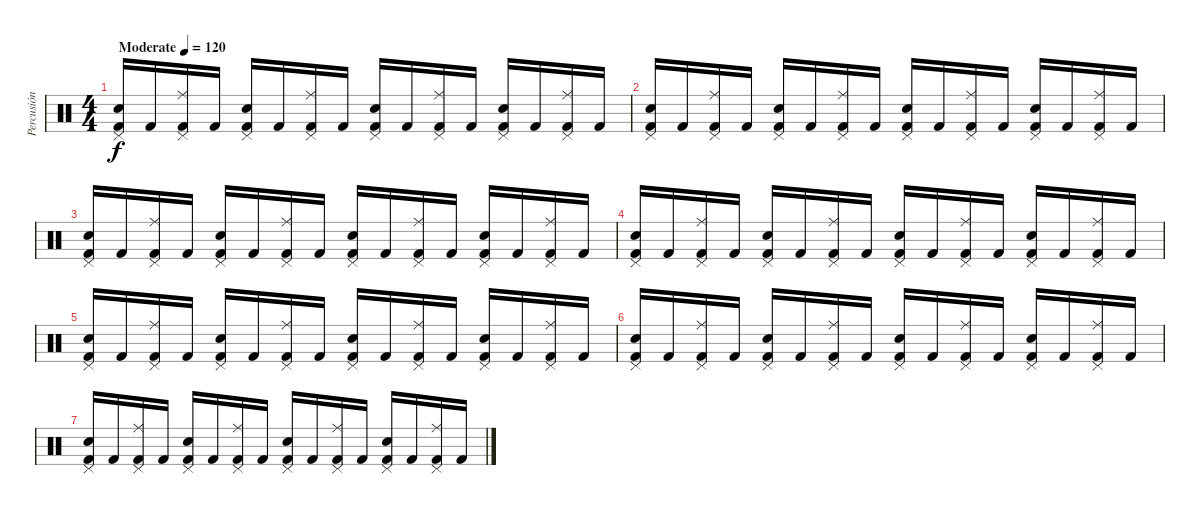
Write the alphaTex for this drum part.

\track ("Percusión" "Percusión") {instrument percussion}
\staff {score}
\articulation defaults
\ts (4 4)
\tempo (120 "Moderate")
\clef neutral
\ks c
("Snare (hit) 2" "Pedal Hi-Hat (hit)" "Kick (hit) 2").16{dy f} "Kick (hit) 2".16 ("Ride (middle)" "Pedal Hi-Hat (hit)" "Kick (hit) 2").16 "Kick (hit) 2".16 ("Snare (hit) 2" "Pedal Hi-Hat (hit)" "Kick (hit) 2").16 "Kick (hit) 2".16 ("Ride (middle)" "Pedal Hi-Hat (hit)" "Kick (hit) 2").16 "Kick (hit) 2".16 ("Snare (hit) 2" "Pedal Hi-Hat (hit)" "Kick (hit) 2").16 "Kick (hit) 2".16 ("Ride (middle)" "Pedal Hi-Hat (hit)" "Kick (hit) 2").16 "Kick (hit) 2".16 ("Snare (hit) 2" "Pedal Hi-Hat (hit)" "Kick (hit) 2").16 "Kick (hit) 2".16 ("Ride (middle)" "Pedal Hi-Hat (hit)" "Kick (hit) 2").16 "Kick (hit) 2".16 |
("Snare (hit) 2" "Pedal Hi-Hat (hit)" "Kick (hit) 2").16 "Kick (hit) 2".16 ("Ride (middle)" "Pedal Hi-Hat (hit)" "Kick (hit) 2").16 "Kick (hit) 2".16 ("Snare (hit) 2" "Pedal Hi-Hat (hit)" "Kick (hit) 2").16 "Kick (hit) 2".16 ("Ride (middle)" "Pedal Hi-Hat (hit)" "Kick (hit) 2").16 "Kick (hit) 2".16 ("Snare (hit) 2" "Pedal Hi-Hat (hit)" "Kick (hit) 2").16 "Kick (hit) 2".16 ("Ride (middle)" "Pedal Hi-Hat (hit)" "Kick (hit) 2").16 "Kick (hit) 2".16 ("Snare (hit) 2" "Pedal Hi-Hat (hit)" "Kick (hit) 2").16 "Kick (hit) 2".16 ("Ride (middle)" "Pedal Hi-Hat (hit)" "Kick (hit) 2").16 "Kick (hit) 2".16 |
("Snare (hit) 2" "Pedal Hi-Hat (hit)" "Kick (hit) 2").16 "Kick (hit) 2".16 ("Ride (middle)" "Pedal Hi-Hat (hit)" "Kick (hit) 2").16 "Kick (hit) 2".16 ("Snare (hit) 2" "Pedal Hi-Hat (hit)" "Kick (hit) 2").16 "Kick (hit) 2".16 ("Ride (middle)" "Pedal Hi-Hat (hit)" "Kick (hit) 2").16 "Kick (hit) 2".16 ("Snare (hit) 2" "Pedal Hi-Hat (hit)" "Kick (hit) 2").16 "Kick (hit) 2".16 ("Ride (middle)" "Pedal Hi-Hat (hit)" "Kick (hit) 2").16 "Kick (hit) 2".16 ("Snare (hit) 2" "Pedal Hi-Hat (hit)" "Kick (hit) 2").16 "Kick (hit) 2".16 ("Ride (middle)" "Pedal Hi-Hat (hit)" "Kick (hit) 2").16 "Kick (hit) 2".16 |
("Snare (hit) 2" "Pedal Hi-Hat (hit)" "Kick (hit) 2").16 "Kick (hit) 2".16 ("Ride (middle)" "Pedal Hi-Hat (hit)" "Kick (hit) 2").16 "Kick (hit) 2".16 ("Snare (hit) 2" "Pedal Hi-Hat (hit)" "Kick (hit) 2").16 "Kick (hit) 2".16 ("Ride (middle)" "Pedal Hi-Hat (hit)" "Kick (hit) 2").16 "Kick (hit) 2".16 ("Snare (hit) 2" "Pedal Hi-Hat (hit)" "Kick (hit) 2").16 "Kick (hit) 2".16 ("Ride (middle)" "Pedal Hi-Hat (hit)" "Kick (hit) 2").16 "Kick (hit) 2".16 ("Snare (hit) 2" "Pedal Hi-Hat (hit)" "Kick (hit) 2").16 "Kick (hit) 2".16 ("Ride (middle)" "Pedal Hi-Hat (hit)" "Kick (hit) 2").16 "Kick (hit) 2".16 |
("Snare (hit) 2" "Pedal Hi-Hat (hit)" "Kick (hit) 2").16 "Kick (hit) 2".16 ("Ride (middle)" "Pedal Hi-Hat (hit)" "Kick (hit) 2").16 "Kick (hit) 2".16 ("Snare (hit) 2" "Pedal Hi-Hat (hit)" "Kick (hit) 2").16 "Kick (hit) 2".16 ("Ride (middle)" "Pedal Hi-Hat (hit)" "Kick (hit) 2").16 "Kick (hit) 2".16 ("Snare (hit) 2" "Pedal Hi-Hat (hit)" "Kick (hit) 2").16 "Kick (hit) 2".16 ("Ride (middle)" "Pedal Hi-Hat (hit)" "Kick (hit) 2").16 "Kick (hit) 2".16 ("Snare (hit) 2" "Pedal Hi-Hat (hit)" "Kick (hit) 2").16 "Kick (hit) 2".16 ("Ride (middle)" "Pedal Hi-Hat (hit)" "Kick (hit) 2").16 "Kick (hit) 2".16 |
("Snare (hit) 2" "Pedal Hi-Hat (hit)" "Kick (hit) 2").16 "Kick (hit) 2".16 ("Ride (middle)" "Pedal Hi-Hat (hit)" "Kick (hit) 2").16 "Kick (hit) 2".16 ("Snare (hit) 2" "Pedal Hi-Hat (hit)" "Kick (hit) 2").16 "Kick (hit) 2".16 ("Ride (middle)" "Pedal Hi-Hat (hit)" "Kick (hit) 2").16 "Kick (hit) 2".16 ("Snare (hit) 2" "Pedal Hi-Hat (hit)" "Kick (hit) 2").16 "Kick (hit) 2".16 ("Ride (middle)" "Pedal Hi-Hat (hit)" "Kick (hit) 2").16 "Kick (hit) 2".16 ("Snare (hit) 2" "Pedal Hi-Hat (hit)" "Kick (hit) 2").16 "Kick (hit) 2".16 ("Ride (middle)" "Pedal Hi-Hat (hit)" "Kick (hit) 2").16 "Kick (hit) 2".16 |
("Snare (hit) 2" "Pedal Hi-Hat (hit)" "Kick (hit) 2").16 "Kick (hit) 2".16 ("Ride (middle)" "Pedal Hi-Hat (hit)" "Kick (hit) 2").16 "Kick (hit) 2".16 ("Snare (hit) 2" "Pedal Hi-Hat (hit)" "Kick (hit) 2").16 "Kick (hit) 2".16 ("Ride (middle)" "Pedal Hi-Hat (hit)" "Kick (hit) 2").16 "Kick (hit) 2".16 ("Snare (hit) 2" "Pedal Hi-Hat (hit)" "Kick (hit) 2").16 "Kick (hit) 2".16 ("Ride (middle)" "Pedal Hi-Hat (hit)" "Kick (hit) 2").16 "Kick (hit) 2".16 ("Snare (hit) 2" "Pedal Hi-Hat (hit)" "Kick (hit) 2").16 "Kick (hit) 2".16 ("Ride (middle)" "Pedal Hi-Hat (hit)" "Kick (hit) 2").16 "Kick (hit) 2".16
